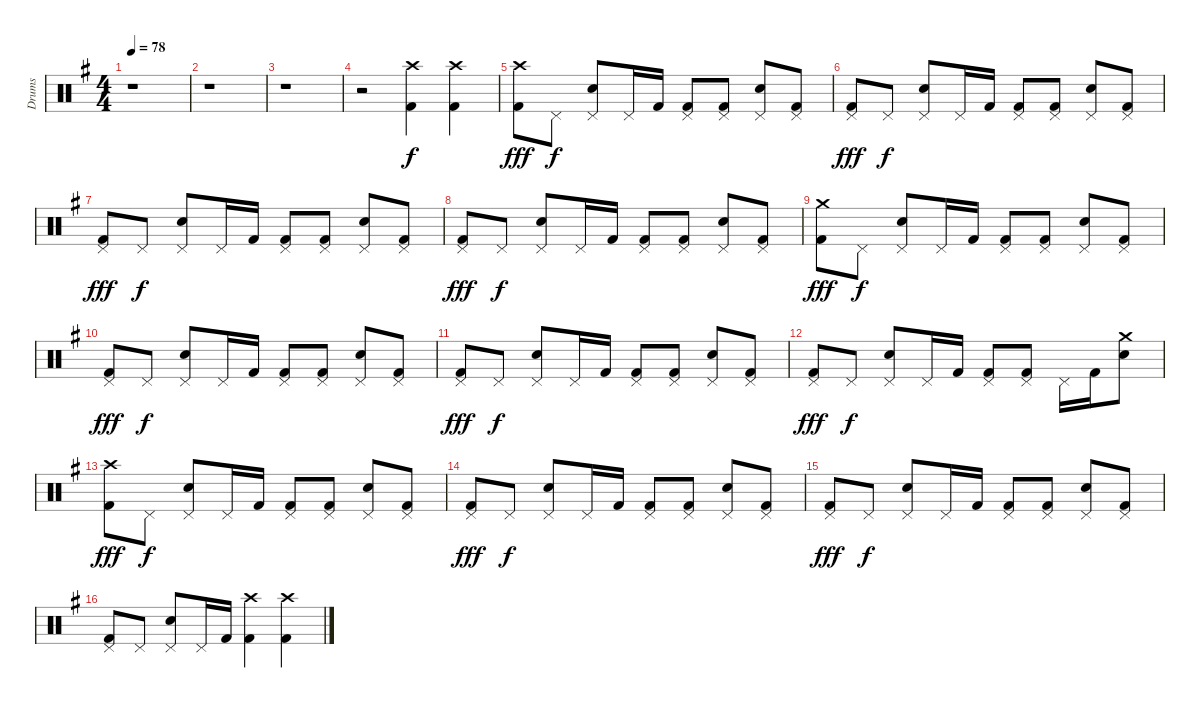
\track ("Drums" "Drums") {instrument percussion}
\staff {score}
\articulation defaults
\ts (4 4)
\tempo 78
\clef neutral
\ks g
r.1{dy f} |
r.1 |
r.1 |
r.2 ("Crash high (hit)" "Kick (hit) 2").4 ("Crash high (hit)" "Kick (hit) 2").4 |
("Crash high (hit)" "Kick (hit) 2").8{dy fff} "Pedal Hi-Hat (hit)".8{dy f} ("Pedal Hi-Hat (hit)" "Snare (hit) 2").8 "Pedal Hi-Hat (hit)".16 "Kick (hit) 2".16 ("Pedal Hi-Hat (hit)" "Kick (hit) 2").8 ("Pedal Hi-Hat (hit)" "Kick (hit) 2").8 ("Pedal Hi-Hat (hit)" "Snare (hit) 2").8 ("Pedal Hi-Hat (hit)" "Kick (hit) 2").8 |
("Pedal Hi-Hat (hit)" "Kick (hit) 2").8{dy fff} "Pedal Hi-Hat (hit)".8{dy f} ("Pedal Hi-Hat (hit)" "Snare (hit) 2").8 "Pedal Hi-Hat (hit)".16 "Kick (hit) 2".16 ("Pedal Hi-Hat (hit)" "Kick (hit) 2").8 ("Pedal Hi-Hat (hit)" "Kick (hit) 2").8 ("Pedal Hi-Hat (hit)" "Snare (hit) 2").8 ("Pedal Hi-Hat (hit)" "Kick (hit) 2").8 |
("Pedal Hi-Hat (hit)" "Kick (hit) 2").8{dy fff} "Pedal Hi-Hat (hit)".8{dy f} ("Pedal Hi-Hat (hit)" "Snare (hit) 2").8 "Pedal Hi-Hat (hit)".16 "Kick (hit) 2".16 ("Pedal Hi-Hat (hit)" "Kick (hit) 2").8 ("Pedal Hi-Hat (hit)" "Kick (hit) 2").8 ("Pedal Hi-Hat (hit)" "Snare (hit) 2").8 ("Pedal Hi-Hat (hit)" "Kick (hit) 2").8 |
("Pedal Hi-Hat (hit)" "Kick (hit) 2").8{dy fff} "Pedal Hi-Hat (hit)".8{dy f} ("Pedal Hi-Hat (hit)" "Snare (hit) 2").8 "Pedal Hi-Hat (hit)".16 "Kick (hit) 2".16 ("Pedal Hi-Hat (hit)" "Kick (hit) 2").8 ("Pedal Hi-Hat (hit)" "Kick (hit) 2").8 ("Pedal Hi-Hat (hit)" "Snare (hit) 2").8 ("Pedal Hi-Hat (hit)" "Kick (hit) 2").8 |
("Crash medium (hit)" "Kick (hit) 2").8{dy fff} "Pedal Hi-Hat (hit)".8{dy f} ("Pedal Hi-Hat (hit)" "Snare (hit) 2").8 "Pedal Hi-Hat (hit)".16 "Kick (hit) 2".16 ("Pedal Hi-Hat (hit)" "Kick (hit) 2").8 ("Pedal Hi-Hat (hit)" "Kick (hit) 2").8 ("Pedal Hi-Hat (hit)" "Snare (hit) 2").8 ("Pedal Hi-Hat (hit)" "Kick (hit) 2").8 |
("Pedal Hi-Hat (hit)" "Kick (hit) 2").8{dy fff} "Pedal Hi-Hat (hit)".8{dy f} ("Pedal Hi-Hat (hit)" "Snare (hit) 2").8 "Pedal Hi-Hat (hit)".16 "Kick (hit) 2".16 ("Pedal Hi-Hat (hit)" "Kick (hit) 2").8 ("Pedal Hi-Hat (hit)" "Kick (hit) 2").8 ("Pedal Hi-Hat (hit)" "Snare (hit) 2").8 ("Pedal Hi-Hat (hit)" "Kick (hit) 2").8 |
("Pedal Hi-Hat (hit)" "Kick (hit) 2").8{dy fff} "Pedal Hi-Hat (hit)".8{dy f} ("Pedal Hi-Hat (hit)" "Snare (hit) 2").8 "Pedal Hi-Hat (hit)".16 "Kick (hit) 2".16 ("Pedal Hi-Hat (hit)" "Kick (hit) 2").8 ("Pedal Hi-Hat (hit)" "Kick (hit) 2").8 ("Pedal Hi-Hat (hit)" "Snare (hit) 2").8 ("Pedal Hi-Hat (hit)" "Kick (hit) 2").8 |
("Pedal Hi-Hat (hit)" "Kick (hit) 2").8{dy fff} "Pedal Hi-Hat (hit)".8{dy f} ("Pedal Hi-Hat (hit)" "Snare (hit) 2").8 "Pedal Hi-Hat (hit)".16 "Kick (hit) 2".16 ("Pedal Hi-Hat (hit)" "Kick (hit) 2").8 ("Pedal Hi-Hat (hit)" "Kick (hit) 2").8 "Pedal Hi-Hat (hit)".16 "Kick (hit) 2".16 ("Crash medium (hit)" "Snare (hit) 2").8 |
("Crash high (hit)" "Kick (hit) 2").8{dy fff} "Pedal Hi-Hat (hit)".8{dy f} ("Pedal Hi-Hat (hit)" "Snare (hit) 2").8 "Pedal Hi-Hat (hit)".16 "Kick (hit) 2".16 ("Pedal Hi-Hat (hit)" "Kick (hit) 2").8 ("Pedal Hi-Hat (hit)" "Kick (hit) 2").8 ("Pedal Hi-Hat (hit)" "Snare (hit) 2").8 ("Pedal Hi-Hat (hit)" "Kick (hit) 2").8 |
("Pedal Hi-Hat (hit)" "Kick (hit) 2").8{dy fff} "Pedal Hi-Hat (hit)".8{dy f} ("Pedal Hi-Hat (hit)" "Snare (hit) 2").8 "Pedal Hi-Hat (hit)".16 "Kick (hit) 2".16 ("Pedal Hi-Hat (hit)" "Kick (hit) 2").8 ("Pedal Hi-Hat (hit)" "Kick (hit) 2").8 ("Pedal Hi-Hat (hit)" "Snare (hit) 2").8 ("Pedal Hi-Hat (hit)" "Kick (hit) 2").8 |
("Pedal Hi-Hat (hit)" "Kick (hit) 2").8{dy fff} "Pedal Hi-Hat (hit)".8{dy f} ("Pedal Hi-Hat (hit)" "Snare (hit) 2").8 "Pedal Hi-Hat (hit)".16 "Kick (hit) 2".16 ("Pedal Hi-Hat (hit)" "Kick (hit) 2").8 ("Pedal Hi-Hat (hit)" "Kick (hit) 2").8 ("Pedal Hi-Hat (hit)" "Snare (hit) 2").8 ("Pedal Hi-Hat (hit)" "Kick (hit) 2").8 |
("Pedal Hi-Hat (hit)" "Kick (hit) 2").8 "Pedal Hi-Hat (hit)".8 ("Pedal Hi-Hat (hit)" "Snare (hit) 2").8 "Pedal Hi-Hat (hit)".16 "Kick (hit) 2".16 ("Crash high (hit)" "Kick (hit) 2").4 ("Crash high (hit)" "Kick (hit) 2").4
